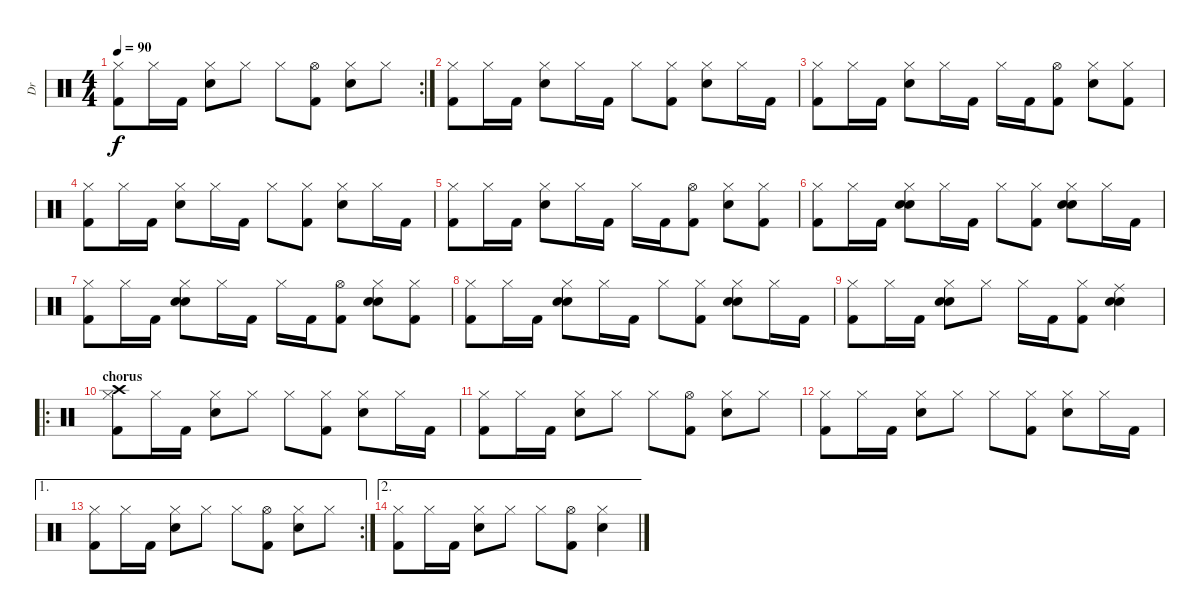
\track ("Dr" "Dr") {instrument percussion}
\staff {score}
\articulation defaults
\rc 2
\ts (4 4)
\tempo 90
\clef neutral
\ks c
("Hi-Hat (closed)" "Kick (hit) 2").8{dy f} "Hi-Hat (closed)".16 "Kick (hit) 2".16 ("Hi-Hat (closed)" "Electric Snare (hit)").8 "Hi-Hat (closed)".8 "Hi-Hat (closed)".8 ("Hi-Hat (open)" "Kick (hit) 2").8 ("Hi-Hat (closed)" "Electric Snare (hit)").8 "Hi-Hat (closed)".8 |
("Hi-Hat (closed)" "Kick (hit) 2").8 "Hi-Hat (closed)".16 "Kick (hit) 2".16 ("Hi-Hat (closed)" "Electric Snare (hit)").8 "Hi-Hat (closed)".16 "Kick (hit) 2".16 "Hi-Hat (closed)".8 ("Hi-Hat (closed)" "Kick (hit) 2").8 ("Hi-Hat (closed)" "Electric Snare (hit)").8 "Hi-Hat (closed)".16 "Kick (hit) 2".16 |
("Hi-Hat (closed)" "Kick (hit) 2").8 "Hi-Hat (closed)".16 "Kick (hit) 2".16 ("Hi-Hat (closed)" "Electric Snare (hit)").8 "Hi-Hat (closed)".16 "Kick (hit) 2".16 "Hi-Hat (closed)".16 "Kick (hit) 2".16 ("Hi-Hat (open)" "Kick (hit) 2").8 ("Hi-Hat (closed)" "Electric Snare (hit)").8 ("Hi-Hat (closed)" "Kick (hit) 2").8 |
("Hi-Hat (closed)" "Kick (hit) 2").8 "Hi-Hat (closed)".16 "Kick (hit) 2".16 ("Hi-Hat (closed)" "Electric Snare (hit)").8 "Hi-Hat (closed)".16 "Kick (hit) 2".16 "Hi-Hat (closed)".8 ("Hi-Hat (closed)" "Kick (hit) 2").8 ("Hi-Hat (closed)" "Electric Snare (hit)").8 "Hi-Hat (closed)".16 "Kick (hit) 2".16 |
("Hi-Hat (closed)" "Kick (hit) 2").8 "Hi-Hat (closed)".16 "Kick (hit) 2".16 ("Hi-Hat (closed)" "Electric Snare (hit)").8 "Hi-Hat (closed)".16 "Kick (hit) 2".16 "Hi-Hat (closed)".16 "Kick (hit) 2".16 ("Hi-Hat (open)" "Kick (hit) 2").8 ("Hi-Hat (closed)" "Electric Snare (hit)").8 ("Hi-Hat (closed)" "Kick (hit) 2").8 |
("Hi-Hat (closed)" "Kick (hit) 2").8 "Hi-Hat (closed)".16 "Kick (hit) 2".16 ("Hi-Hat (closed)" "Electric Snare (hit)" "Hand Clap (hit)").8 "Hi-Hat (closed)".16 "Kick (hit) 2".16 "Hi-Hat (closed)".8 ("Hi-Hat (closed)" "Kick (hit) 2").8 ("Hi-Hat (closed)" "Electric Snare (hit)" "Hand Clap (hit)").8 "Hi-Hat (closed)".16 "Kick (hit) 2".16 |
("Hi-Hat (closed)" "Kick (hit) 2").8 "Hi-Hat (closed)".16 "Kick (hit) 2".16 ("Hi-Hat (closed)" "Electric Snare (hit)" "Hand Clap (hit)").8 "Hi-Hat (closed)".16 "Kick (hit) 2".16 "Hi-Hat (closed)".16 "Kick (hit) 2".16 ("Hi-Hat (open)" "Kick (hit) 2").8 ("Hi-Hat (closed)" "Electric Snare (hit)" "Hand Clap (hit)").8 ("Hi-Hat (closed)" "Kick (hit) 2").8 |
("Hi-Hat (closed)" "Kick (hit) 2").8 "Hi-Hat (closed)".16 "Kick (hit) 2".16 ("Hi-Hat (closed)" "Electric Snare (hit)" "Hand Clap (hit)").8 "Hi-Hat (closed)".16 "Kick (hit) 2".16 "Hi-Hat (closed)".8 ("Hi-Hat (closed)" "Kick (hit) 2").8 ("Hi-Hat (closed)" "Electric Snare (hit)" "Hand Clap (hit)").8 "Hi-Hat (closed)".16 "Kick (hit) 2".16 |
("Hi-Hat (closed)" "Kick (hit) 2").8 "Hi-Hat (closed)".16 "Kick (hit) 2".16 ("Hi-Hat (closed)" "Electric Snare (hit)" "Hand Clap (hit)").8 "Hi-Hat (closed)".8 "Hi-Hat (closed)".16 "Kick (hit) 2".16 ("Hi-Hat (closed)" "Kick (hit) 2").8 ("Ride (middle)" "Electric Snare (hit)" "Hand Clap (hit)").4 |
\ro
\section ("" "chorus")
("Crash high (hit)" "Hi-Hat (closed)" "Kick (hit) 2").8 "Hi-Hat (closed)".16 "Kick (hit) 2".16 ("Hi-Hat (closed)" "Electric Snare (hit)").8 "Hi-Hat (closed)".8 "Hi-Hat (closed)".8 ("Hi-Hat (closed)" "Kick (hit) 2").8 ("Hi-Hat (closed)" "Electric Snare (hit)").8 "Hi-Hat (closed)".16 "Kick (hit) 2".16 |
("Hi-Hat (closed)" "Kick (hit) 2").8 "Hi-Hat (closed)".16 "Kick (hit) 2".16 ("Hi-Hat (closed)" "Electric Snare (hit)").8 "Hi-Hat (closed)".8 "Hi-Hat (closed)".8 ("Hi-Hat (open)" "Kick (hit) 2").8 ("Hi-Hat (closed)" "Electric Snare (hit)").8 "Hi-Hat (closed)".8 |
("Hi-Hat (closed)" "Kick (hit) 2").8 "Hi-Hat (closed)".16 "Kick (hit) 2".16 ("Hi-Hat (closed)" "Electric Snare (hit)").8 "Hi-Hat (closed)".8 "Hi-Hat (closed)".8 ("Hi-Hat (closed)" "Kick (hit) 2").8 ("Hi-Hat (closed)" "Electric Snare (hit)").8 "Hi-Hat (closed)".16 "Kick (hit) 2".16 |
\ae 1
\rc 2
("Hi-Hat (closed)" "Kick (hit) 2").8 "Hi-Hat (closed)".16 "Kick (hit) 2".16 ("Hi-Hat (closed)" "Electric Snare (hit)").8 "Hi-Hat (closed)".8 "Hi-Hat (closed)".8 ("Hi-Hat (open)" "Kick (hit) 2").8 ("Hi-Hat (closed)" "Electric Snare (hit)").8 "Hi-Hat (closed)".8 |
\ae 2
("Hi-Hat (closed)" "Kick (hit) 2").8 "Hi-Hat (closed)".16 "Kick (hit) 2".16 ("Hi-Hat (closed)" "Electric Snare (hit)").8 "Hi-Hat (closed)".8 "Hi-Hat (closed)".8 ("Hi-Hat (open)" "Kick (hit) 2").8 ("Hi-Hat (closed)" "Electric Snare (hit)").4
